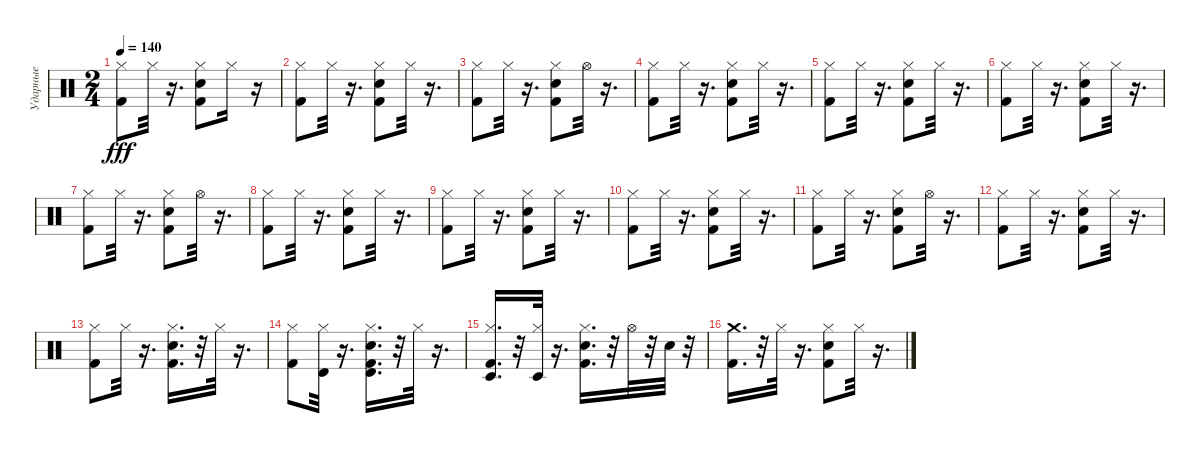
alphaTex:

\track ("Ударные" "Ударные") {instrument percussion}
\staff {score}
\articulation defaults
\ts (2 4)
\tempo 140
\clef neutral
\ks c
("Kick (hit) 2" "Hi-Hat (closed)").8{dy fff} "Hi-Hat (closed)".32 r.16{d} ("Kick (hit) 2" "Hi-Hat (closed)" "Snare (hit) 2").8 "Hi-Hat (closed)".16 r.16 |
("Kick (hit) 2" "Hi-Hat (closed)").8 "Hi-Hat (closed)".32 r.16{d} ("Hi-Hat (closed)" "Snare (hit) 2" "Kick (hit) 2").8 "Hi-Hat (closed)".32 r.16{d} |
("Kick (hit) 2" "Hi-Hat (closed)").8 "Hi-Hat (closed)".32 r.16{d} ("Snare (hit) 2" "Hi-Hat (closed)" "Kick (hit) 2").8 "Hi-Hat (open)".32 r.16{d} |
("Kick (hit) 2" "Hi-Hat (closed)").8 "Hi-Hat (closed)".32 r.16{d} ("Snare (hit) 2" "Kick (hit) 2" "Hi-Hat (closed)").8 "Hi-Hat (closed)".32 r.16{d} |
("Kick (hit) 2" "Hi-Hat (closed)").8 "Hi-Hat (closed)".32 r.16{d} ("Snare (hit) 2" "Kick (hit) 2" "Hi-Hat (closed)").8 "Hi-Hat (closed)".32 r.16{d} |
("Kick (hit) 2" "Hi-Hat (closed)").8 "Hi-Hat (closed)".32 r.16{d} ("Snare (hit) 2" "Kick (hit) 2" "Hi-Hat (closed)").8 "Hi-Hat (closed)".32 r.16{d} |
("Kick (hit) 2" "Hi-Hat (closed)").8 "Hi-Hat (closed)".32 r.16{d} ("Kick (hit) 2" "Snare (hit) 2" "Hi-Hat (closed)").8 "Hi-Hat (open)".32 r.16{d} |
("Kick (hit) 2" "Hi-Hat (closed)").8 "Hi-Hat (closed)".32 r.16{d} ("Snare (hit) 2" "Kick (hit) 2" "Hi-Hat (closed)").8 "Hi-Hat (closed)".32 r.16{d} |
("Kick (hit) 2" "Hi-Hat (closed)").8 "Hi-Hat (closed)".32 r.16{d} ("Snare (hit) 2" "Kick (hit) 2" "Hi-Hat (closed)").8 "Hi-Hat (closed)".32 r.16{d} |
("Kick (hit) 2" "Hi-Hat (closed)").8 "Hi-Hat (closed)".32 r.16{d} ("Snare (hit) 2" "Kick (hit) 2" "Hi-Hat (closed)").8 "Hi-Hat (closed)".32 r.16{d} |
("Kick (hit) 2" "Hi-Hat (closed)").8 "Hi-Hat (closed)".32 r.16{d} ("Snare (hit) 2" "Kick (hit) 2" "Hi-Hat (closed)").8 "Hi-Hat (open)".32 r.16{d} |
("Kick (hit) 2" "Hi-Hat (closed)").8 "Hi-Hat (closed)".32 r.16{d} ("Kick (hit) 2" "Hi-Hat (closed)" "Snare (hit) 2").8 "Hi-Hat (closed)".32 r.16{d} |
("Kick (hit) 2" "Hi-Hat (closed)").8 "Hi-Hat (closed)".32 r.16{d} ("Snare (hit) 2" "Kick (hit) 2" "Hi-Hat (closed)").16{d} r.32 "Hi-Hat (closed)".32 r.16{d} |
("Kick (hit) 2" "Hi-Hat (closed)").8 ("Timbale high (hit)" "Hi-Hat (closed)").32 r.16{d} ("Kick (hit) 2" "Timbale high (hit)" "Snare (hit) 2" "Hi-Hat (closed)").16{d} r.32 "Hi-Hat (closed)".32 r.16{d} |
("Timbale low (hit)" "Hi-Hat (closed)" "Kick (hit) 2").16{d} r.32 ("Timbale low (hit)" "Hi-Hat (closed)").32 r.16{d} ("Hi-Hat (closed)" "Snare (hit) 2" "Kick (hit) 2").16{d} r.32 "Hi-Hat (open)".32 r.32 "Snare (hit) 2".32 r.32 |
("Kick (hit) 2" "Crash medium (hit)").16{d} r.32 "Hi-Hat (closed)".32 r.16{d} ("Snare (hit) 2" "Hi-Hat (closed)" "Kick (hit) 2").8 "Hi-Hat (closed)".32 r.16{d}
